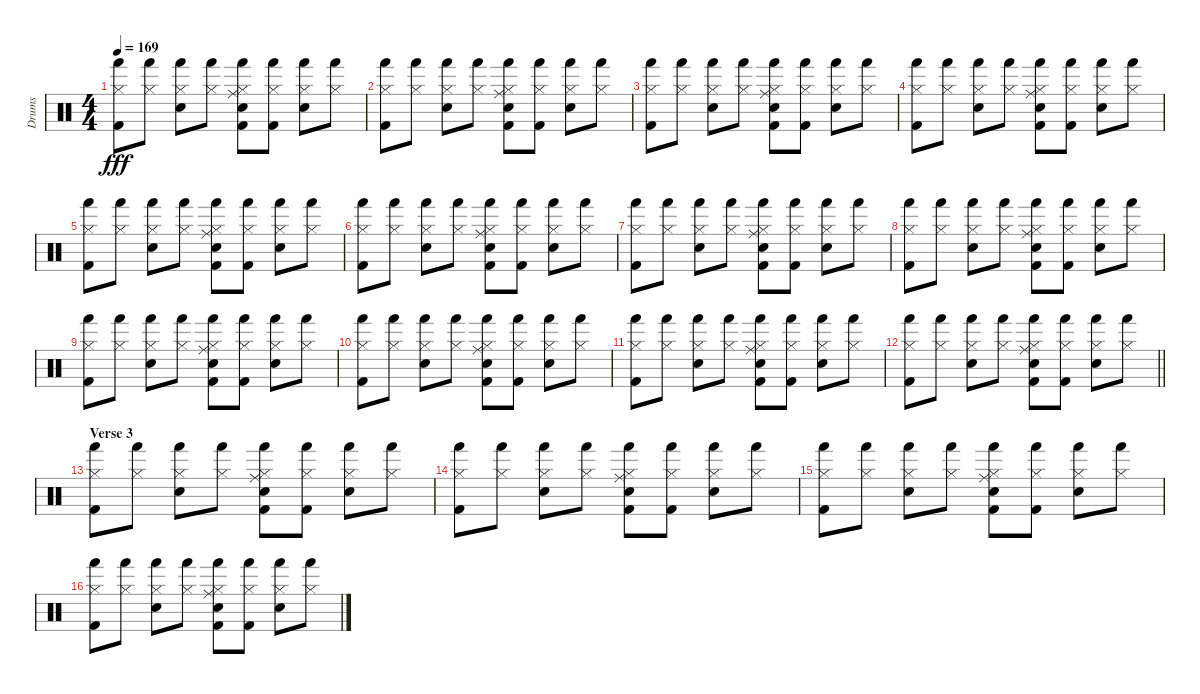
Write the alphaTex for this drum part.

\track ("Drums" "Drums") {instrument percussion}
\staff {score}
\articulation defaults
\ts (4 4)
\tempo 169
\clef neutral
\ks c
("Kick (hit) 2" "Hand (hit)" "Hi-Hat (closed)").8{dy fff} ("Hand (hit)" "Hi-Hat (closed)").8 ("Snare (hit) 2" "Hand (hit)" "Hi-Hat (closed)").8 ("Hand (hit)" "Hi-Hat (closed)").8 ("Kick (hit) 2" "Hand (hit)" "Electric Snare (hit)" "Ride (middle)" "Hi-Hat (closed)").8 ("Kick (hit) 2" "Hand (hit)" "Hi-Hat (closed)").8 ("Snare (hit) 2" "Hand (hit)" "Hi-Hat (closed)").8 ("Hand (hit)" "Hi-Hat (closed)").8 |
("Kick (hit) 2" "Hand (hit)" "Hi-Hat (closed)").8 ("Hand (hit)" "Hi-Hat (closed)").8 ("Snare (hit) 2" "Hand (hit)" "Hi-Hat (closed)").8 ("Hand (hit)" "Hi-Hat (closed)").8 ("Kick (hit) 2" "Hand (hit)" "Electric Snare (hit)" "Ride (middle)" "Hi-Hat (closed)").8 ("Kick (hit) 2" "Hand (hit)" "Hi-Hat (closed)").8 ("Snare (hit) 2" "Hand (hit)" "Hi-Hat (closed)").8 ("Hand (hit)" "Hi-Hat (closed)").8 |
("Kick (hit) 2" "Hand (hit)" "Hi-Hat (closed)").8 ("Hand (hit)" "Hi-Hat (closed)").8 ("Snare (hit) 2" "Hand (hit)" "Hi-Hat (closed)").8 ("Hand (hit)" "Hi-Hat (closed)").8 ("Kick (hit) 2" "Hand (hit)" "Electric Snare (hit)" "Ride (middle)" "Hi-Hat (closed)").8 ("Kick (hit) 2" "Hand (hit)" "Hi-Hat (closed)").8 ("Snare (hit) 2" "Hand (hit)" "Hi-Hat (closed)").8 ("Hand (hit)" "Hi-Hat (closed)").8 |
("Kick (hit) 2" "Hand (hit)" "Hi-Hat (closed)").8 ("Hand (hit)" "Hi-Hat (closed)").8 ("Snare (hit) 2" "Hand (hit)" "Hi-Hat (closed)").8 ("Hand (hit)" "Hi-Hat (closed)").8 ("Kick (hit) 2" "Hand (hit)" "Electric Snare (hit)" "Ride (middle)" "Hi-Hat (closed)").8 ("Kick (hit) 2" "Hand (hit)" "Hi-Hat (closed)").8 ("Snare (hit) 2" "Hand (hit)" "Hi-Hat (closed)").8 ("Hand (hit)" "Hi-Hat (closed)").8 |
("Kick (hit) 2" "Hand (hit)" "Hi-Hat (closed)").8 ("Hand (hit)" "Hi-Hat (closed)").8 ("Snare (hit) 2" "Hand (hit)" "Hi-Hat (closed)").8 ("Hand (hit)" "Hi-Hat (closed)").8 ("Kick (hit) 2" "Hand (hit)" "Electric Snare (hit)" "Ride (middle)" "Hi-Hat (closed)").8 ("Kick (hit) 2" "Hand (hit)" "Hi-Hat (closed)").8 ("Snare (hit) 2" "Hand (hit)" "Hi-Hat (closed)").8 ("Hand (hit)" "Hi-Hat (closed)").8 |
("Kick (hit) 2" "Hand (hit)" "Hi-Hat (closed)").8 ("Hand (hit)" "Hi-Hat (closed)").8 ("Snare (hit) 2" "Hand (hit)" "Hi-Hat (closed)").8 ("Hand (hit)" "Hi-Hat (closed)").8 ("Kick (hit) 2" "Hand (hit)" "Electric Snare (hit)" "Ride (middle)" "Hi-Hat (closed)").8 ("Kick (hit) 2" "Hand (hit)" "Hi-Hat (closed)").8 ("Snare (hit) 2" "Hand (hit)" "Hi-Hat (closed)").8 ("Hand (hit)" "Hi-Hat (closed)").8 |
("Kick (hit) 2" "Hand (hit)" "Hi-Hat (closed)").8 ("Hand (hit)" "Hi-Hat (closed)").8 ("Snare (hit) 2" "Hand (hit)" "Hi-Hat (closed)").8 ("Hand (hit)" "Hi-Hat (closed)").8 ("Kick (hit) 2" "Hand (hit)" "Electric Snare (hit)" "Ride (middle)" "Hi-Hat (closed)").8 ("Kick (hit) 2" "Hand (hit)" "Hi-Hat (closed)").8 ("Snare (hit) 2" "Hand (hit)" "Hi-Hat (closed)").8 ("Hand (hit)" "Hi-Hat (closed)").8 |
("Kick (hit) 2" "Hand (hit)" "Hi-Hat (closed)").8 ("Hand (hit)" "Hi-Hat (closed)").8 ("Snare (hit) 2" "Hand (hit)" "Hi-Hat (closed)").8 ("Hand (hit)" "Hi-Hat (closed)").8 ("Kick (hit) 2" "Hand (hit)" "Electric Snare (hit)" "Ride (middle)" "Hi-Hat (closed)").8 ("Kick (hit) 2" "Hand (hit)" "Hi-Hat (closed)").8 ("Snare (hit) 2" "Hand (hit)" "Hi-Hat (closed)").8 ("Hand (hit)" "Hi-Hat (closed)").8 |
("Kick (hit) 2" "Hand (hit)" "Hi-Hat (closed)").8 ("Hand (hit)" "Hi-Hat (closed)").8 ("Snare (hit) 2" "Hand (hit)" "Hi-Hat (closed)").8 ("Hand (hit)" "Hi-Hat (closed)").8 ("Kick (hit) 2" "Hand (hit)" "Electric Snare (hit)" "Ride (middle)" "Hi-Hat (closed)").8 ("Kick (hit) 2" "Hand (hit)" "Hi-Hat (closed)").8 ("Snare (hit) 2" "Hand (hit)" "Hi-Hat (closed)").8 ("Hand (hit)" "Hi-Hat (closed)").8 |
("Kick (hit) 2" "Hand (hit)" "Hi-Hat (closed)").8 ("Hand (hit)" "Hi-Hat (closed)").8 ("Snare (hit) 2" "Hand (hit)" "Hi-Hat (closed)").8 ("Hand (hit)" "Hi-Hat (closed)").8 ("Kick (hit) 2" "Hand (hit)" "Electric Snare (hit)" "Ride (middle)" "Hi-Hat (closed)").8 ("Kick (hit) 2" "Hand (hit)" "Hi-Hat (closed)").8 ("Snare (hit) 2" "Hand (hit)" "Hi-Hat (closed)").8 ("Hand (hit)" "Hi-Hat (closed)").8 |
("Kick (hit) 2" "Hand (hit)" "Hi-Hat (closed)").8 ("Hand (hit)" "Hi-Hat (closed)").8 ("Snare (hit) 2" "Hand (hit)" "Hi-Hat (closed)").8 ("Hand (hit)" "Hi-Hat (closed)").8 ("Kick (hit) 2" "Hand (hit)" "Electric Snare (hit)" "Ride (middle)" "Hi-Hat (closed)").8 ("Kick (hit) 2" "Hand (hit)" "Hi-Hat (closed)").8 ("Snare (hit) 2" "Hand (hit)" "Hi-Hat (closed)").8 ("Hand (hit)" "Hi-Hat (closed)").8 |
\barLineRight lightlight
("Kick (hit) 2" "Hand (hit)" "Hi-Hat (closed)").8 ("Hand (hit)" "Hi-Hat (closed)").8 ("Snare (hit) 2" "Hand (hit)" "Hi-Hat (closed)").8 ("Hand (hit)" "Hi-Hat (closed)").8 ("Kick (hit) 2" "Hand (hit)" "Electric Snare (hit)" "Ride (middle)" "Hi-Hat (closed)").8 ("Kick (hit) 2" "Hand (hit)" "Hi-Hat (closed)").8 ("Snare (hit) 2" "Hand (hit)" "Hi-Hat (closed)").8 ("Hand (hit)" "Hi-Hat (closed)").8 |
\section ("" "Verse 3")
("Kick (hit) 2" "Hand (hit)" "Hi-Hat (closed)").8 ("Hand (hit)" "Hi-Hat (closed)").8 ("Snare (hit) 2" "Hand (hit)" "Hi-Hat (closed)").8 ("Hand (hit)" "Hi-Hat (closed)").8 ("Kick (hit) 2" "Hand (hit)" "Electric Snare (hit)" "Ride (middle)" "Hi-Hat (closed)").8 ("Kick (hit) 2" "Hand (hit)" "Hi-Hat (closed)").8 ("Snare (hit) 2" "Hand (hit)" "Hi-Hat (closed)").8 ("Hand (hit)" "Hi-Hat (closed)").8 |
("Kick (hit) 2" "Hand (hit)" "Hi-Hat (closed)").8 ("Hand (hit)" "Hi-Hat (closed)").8 ("Snare (hit) 2" "Hand (hit)" "Hi-Hat (closed)").8 ("Hand (hit)" "Hi-Hat (closed)").8 ("Kick (hit) 2" "Hand (hit)" "Electric Snare (hit)" "Ride (middle)" "Hi-Hat (closed)").8 ("Kick (hit) 2" "Hand (hit)" "Hi-Hat (closed)").8 ("Snare (hit) 2" "Hand (hit)" "Hi-Hat (closed)").8 ("Hand (hit)" "Hi-Hat (closed)").8 |
("Kick (hit) 2" "Hand (hit)" "Hi-Hat (closed)").8 ("Hand (hit)" "Hi-Hat (closed)").8 ("Snare (hit) 2" "Hand (hit)" "Hi-Hat (closed)").8 ("Hand (hit)" "Hi-Hat (closed)").8 ("Kick (hit) 2" "Hand (hit)" "Electric Snare (hit)" "Ride (middle)" "Hi-Hat (closed)").8 ("Kick (hit) 2" "Hand (hit)" "Hi-Hat (closed)").8 ("Snare (hit) 2" "Hand (hit)" "Hi-Hat (closed)").8 ("Hand (hit)" "Hi-Hat (closed)").8 |
("Kick (hit) 2" "Hand (hit)" "Hi-Hat (closed)").8 ("Hand (hit)" "Hi-Hat (closed)").8 ("Snare (hit) 2" "Hand (hit)" "Hi-Hat (closed)").8 ("Hand (hit)" "Hi-Hat (closed)").8 ("Kick (hit) 2" "Hand (hit)" "Electric Snare (hit)" "Ride (middle)" "Hi-Hat (closed)").8 ("Kick (hit) 2" "Hand (hit)" "Hi-Hat (closed)").8 ("Snare (hit) 2" "Hand (hit)" "Hi-Hat (closed)").8 ("Hand (hit)" "Hi-Hat (closed)").8
